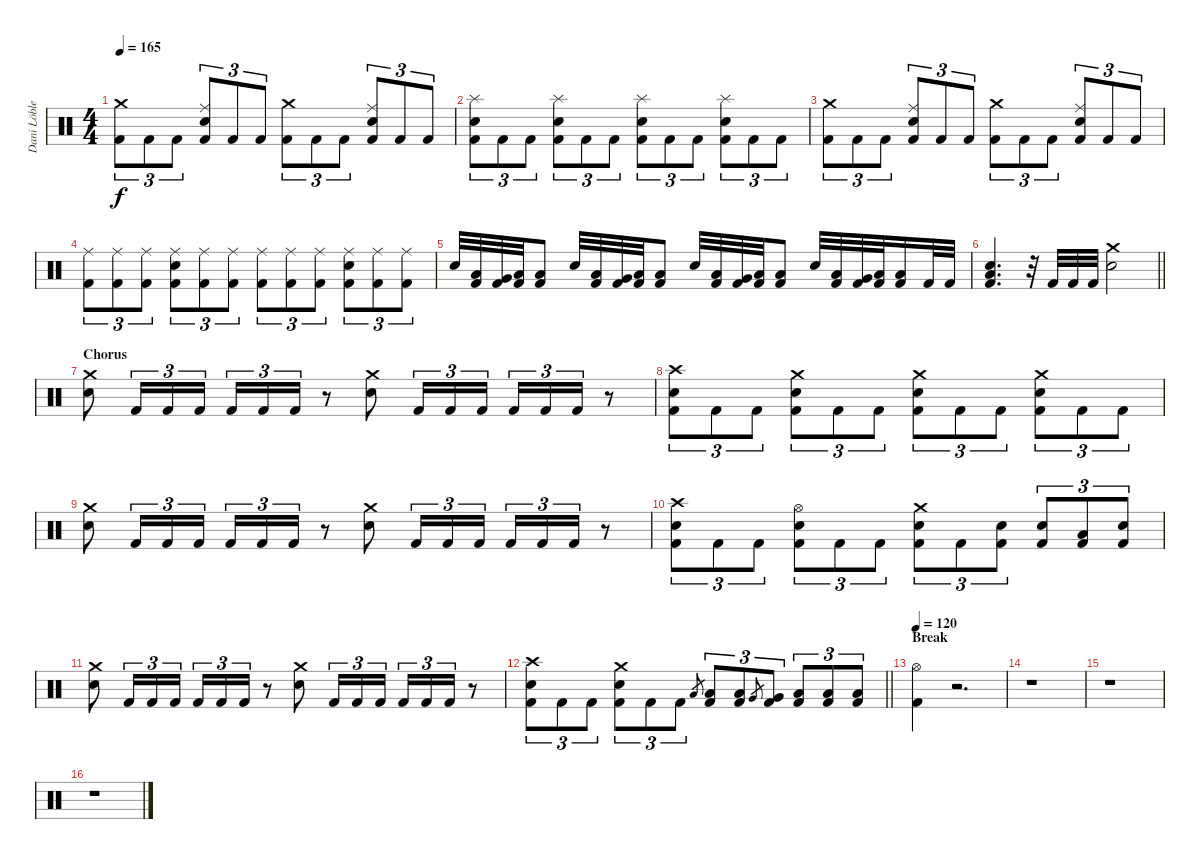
\track ("Dani Löble" "Dani Löble") {instrument percussion}
\staff {score}
\articulation defaults
\ts (4 4)
\tempo 165
\clef neutral
\ks c
("Crash medium (hit)" "Kick (hit) 2").8{tu (3 2) dy f} "Kick (hit) 2".8{tu (3 2)} "Kick (hit) 2".8{tu (3 2)} ("Ride (middle)" "Electric Snare (hit)" "Kick (hit) 2").8{tu (3 2)} "Kick (hit) 2".8{tu (3 2)} "Kick (hit) 2".8{tu (3 2)} ("Crash medium (hit)" "Kick (hit) 2").8{tu (3 2)} "Kick (hit) 2".8{tu (3 2)} "Kick (hit) 2".8{tu (3 2)} ("Ride (middle)" "Electric Snare (hit)" "Kick (hit) 2").8{tu (3 2)} "Kick (hit) 2".8{tu (3 2)} "Kick (hit) 2".8{tu (3 2)} |
("Splash (hit)" "Electric Snare (hit)" "Kick (hit) 2").8{tu (3 2)} "Kick (hit) 2".8{tu (3 2)} "Kick (hit) 2".8{tu (3 2)} ("Splash (hit)" "Electric Snare (hit)" "Kick (hit) 2").8{tu (3 2)} "Kick (hit) 2".8{tu (3 2)} "Kick (hit) 2".8{tu (3 2)} ("Splash (hit)" "Electric Snare (hit)" "Kick (hit) 2").8{tu (3 2)} "Kick (hit) 2".8{tu (3 2)} "Kick (hit) 2".8{tu (3 2)} ("Splash (hit)" "Electric Snare (hit)" "Kick (hit) 2").8{tu (3 2)} "Kick (hit) 2".8{tu (3 2)} "Kick (hit) 2".8{tu (3 2)} |
("Crash medium (hit)" "Kick (hit) 2").8{tu (3 2)} "Kick (hit) 2".8{tu (3 2)} "Kick (hit) 2".8{tu (3 2)} ("Ride (middle)" "Electric Snare (hit)" "Kick (hit) 2").8{tu (3 2)} "Kick (hit) 2".8{tu (3 2)} "Kick (hit) 2".8{tu (3 2)} ("Crash medium (hit)" "Kick (hit) 2").8{tu (3 2)} "Kick (hit) 2".8{tu (3 2)} "Kick (hit) 2".8{tu (3 2)} ("Ride (middle)" "Electric Snare (hit)" "Kick (hit) 2").8{tu (3 2)} "Kick (hit) 2".8{tu (3 2)} "Kick (hit) 2".8{tu (3 2)} |
("Ride (middle)" "Kick (hit) 2").8{tu (3 2)} ("Ride (middle)" "Kick (hit) 2").8{tu (3 2)} ("Ride (middle)" "Kick (hit) 2").8{tu (3 2)} ("Ride (middle)" "Electric Snare (hit)" "Kick (hit) 2").8{tu (3 2)} ("Ride (middle)" "Kick (hit) 2").8{tu (3 2)} ("Ride (middle)" "Kick (hit) 2").8{tu (3 2)} ("Ride (middle)" "Kick (hit) 2").8{tu (3 2)} ("Ride (middle)" "Kick (hit) 2").8{tu (3 2)} ("Ride (middle)" "Kick (hit) 2").8{tu (3 2)} ("Ride (middle)" "Electric Snare (hit)" "Kick (hit) 2").8{tu (3 2)} ("Ride (middle)" "Kick (hit) 2").8{tu (3 2)} ("Ride (middle)" "Kick (hit) 2").8{tu (3 2)} |
"Electric Snare (hit)".32 ("Low Tom (hit)" "Kick (hit) 2").32 ("Very Low Tom (hit)" "Kick (hit) 2").32 ("Low Floor Tom (hit)" "Kick (hit) 2").32 ("Low Floor Tom (hit)" "Kick (hit) 2").8 "Electric Snare (hit)".32 ("Low Tom (hit)" "Kick (hit) 2").32 ("Very Low Tom (hit)" "Kick (hit) 2").32 ("Low Floor Tom (hit)" "Kick (hit) 2").32 ("Low Floor Tom (hit)" "Kick (hit) 2").8 "Electric Snare (hit)".32 ("Low Tom (hit)" "Kick (hit) 2").32 ("Very Low Tom (hit)" "Kick (hit) 2").32 ("Low Floor Tom (hit)" "Kick (hit) 2").32 ("Low Floor Tom (hit)" "Kick (hit) 2").8 "Electric Snare (hit)".32 ("Low Tom (hit)" "Kick (hit) 2").32 ("Very Low Tom (hit)" "Kick (hit) 2").32 ("Low Floor Tom (hit)" "Kick (hit) 2").32 ("Low Floor Tom (hit)" "Kick (hit) 2").16 "Kick (hit) 2".32 "Kick (hit) 2".32 |
\barLineRight lightlight
("Electric Snare (hit)" "Low Floor Tom (hit)" "Kick (hit) 2").4{d} r.32 "Kick (hit) 2".32 "Kick (hit) 2".32 "Kick (hit) 2".32 ("Crash medium (hit)" "Electric Snare (hit)").2 |
\section ("" "Chorus")
("Crash medium (hit)" "Electric Snare (hit)").8 "Kick (hit) 2".16{tu (3 2)} "Kick (hit) 2".16{tu (3 2)} "Kick (hit) 2".16{tu (3 2)} "Kick (hit) 2".16{tu (3 2)} "Kick (hit) 2".16{tu (3 2)} "Kick (hit) 2".16{tu (3 2)} r.8 ("Crash medium (hit)" "Electric Snare (hit)").8 "Kick (hit) 2".16{tu (3 2)} "Kick (hit) 2".16{tu (3 2)} "Kick (hit) 2".16{tu (3 2)} "Kick (hit) 2".16{tu (3 2)} "Kick (hit) 2".16{tu (3 2)} "Kick (hit) 2".16{tu (3 2)} r.8 |
("Crash high (hit)" "Electric Snare (hit)" "Kick (hit) 2").8{tu (3 2)} "Kick (hit) 2".8{tu (3 2)} "Kick (hit) 2".8{tu (3 2)} ("Crash medium (hit)" "Electric Snare (hit)" "Kick (hit) 2").8{tu (3 2)} "Kick (hit) 2".8{tu (3 2)} "Kick (hit) 2".8{tu (3 2)} ("Crash medium (hit)" "Electric Snare (hit)" "Kick (hit) 2").8{tu (3 2)} "Kick (hit) 2".8{tu (3 2)} "Kick (hit) 2".8{tu (3 2)} ("Crash medium (hit)" "Electric Snare (hit)" "Kick (hit) 2").8{tu (3 2)} "Kick (hit) 2".8{tu (3 2)} "Kick (hit) 2".8{tu (3 2)} |
("Crash medium (hit)" "Electric Snare (hit)").8 "Kick (hit) 2".16{tu (3 2)} "Kick (hit) 2".16{tu (3 2)} "Kick (hit) 2".16{tu (3 2)} "Kick (hit) 2".16{tu (3 2)} "Kick (hit) 2".16{tu (3 2)} "Kick (hit) 2".16{tu (3 2)} r.8 ("Crash medium (hit)" "Electric Snare (hit)").8 "Kick (hit) 2".16{tu (3 2)} "Kick (hit) 2".16{tu (3 2)} "Kick (hit) 2".16{tu (3 2)} "Kick (hit) 2".16{tu (3 2)} "Kick (hit) 2".16{tu (3 2)} "Kick (hit) 2".16{tu (3 2)} r.8 |
("Crash high (hit)" "Electric Snare (hit)" "Kick (hit) 2").8{tu (3 2)} "Kick (hit) 2".8{tu (3 2)} "Kick (hit) 2".8{tu (3 2)} ("Hi-Hat (open)" "Electric Snare (hit)" "Kick (hit) 2").8{tu (3 2)} "Kick (hit) 2".8{tu (3 2)} "Kick (hit) 2".8{tu (3 2)} ("Crash medium (hit)" "Electric Snare (hit)" "Kick (hit) 2").8{tu (3 2)} "Kick (hit) 2".8{tu (3 2)} ("Electric Snare (hit)" "Kick (hit) 2").8{tu (3 2)} ("Electric Snare (hit)" "Kick (hit) 2").8{tu (3 2)} ("Low Floor Tom (hit)" "Kick (hit) 2").8{tu (3 2)} ("Electric Snare (hit)" "Kick (hit) 2").8{tu (3 2)} |
("Crash medium (hit)" "Electric Snare (hit)").8 "Kick (hit) 2".16{tu (3 2)} "Kick (hit) 2".16{tu (3 2)} "Kick (hit) 2".16{tu (3 2)} "Kick (hit) 2".16{tu (3 2)} "Kick (hit) 2".16{tu (3 2)} "Kick (hit) 2".16{tu (3 2)} r.8 ("Crash medium (hit)" "Electric Snare (hit)").8 "Kick (hit) 2".16{tu (3 2)} "Kick (hit) 2".16{tu (3 2)} "Kick (hit) 2".16{tu (3 2)} "Kick (hit) 2".16{tu (3 2)} "Kick (hit) 2".16{tu (3 2)} "Kick (hit) 2".16{tu (3 2)} r.8 |
\barLineRight lightlight
("Crash high (hit)" "Electric Snare (hit)" "Kick (hit) 2").8{tu (3 2)} "Kick (hit) 2".8{tu (3 2)} "Kick (hit) 2".8{tu (3 2)} ("Crash medium (hit)" "Electric Snare (hit)" "Kick (hit) 2").8{tu (3 2)} "Kick (hit) 2".8{tu (3 2)} "Kick (hit) 2".8{tu (3 2)} "Low Tom (hit)".8{gr} ("Low Tom (hit)" "Kick (hit) 2").8{tu (3 2)} ("Low Tom (hit)" "Kick (hit) 2").8{tu (3 2)} "Very Low Tom (hit)".8{gr} ("Very Low Tom (hit)" "Kick (hit) 2").8{tu (3 2)} ("Low Floor Tom (hit)" "Kick (hit) 2").8{tu (3 2)} ("Low Floor Tom (hit)" "Kick (hit) 2").8{tu (3 2)} ("Low Floor Tom (hit)" "Kick (hit) 2").8{tu (3 2)} |
\section ("" "Break")
\tempo 120
("Hi-Hat (open)" "Kick (hit) 2").4 r.2{d} |
r.1 |
r.1 |
r.1
